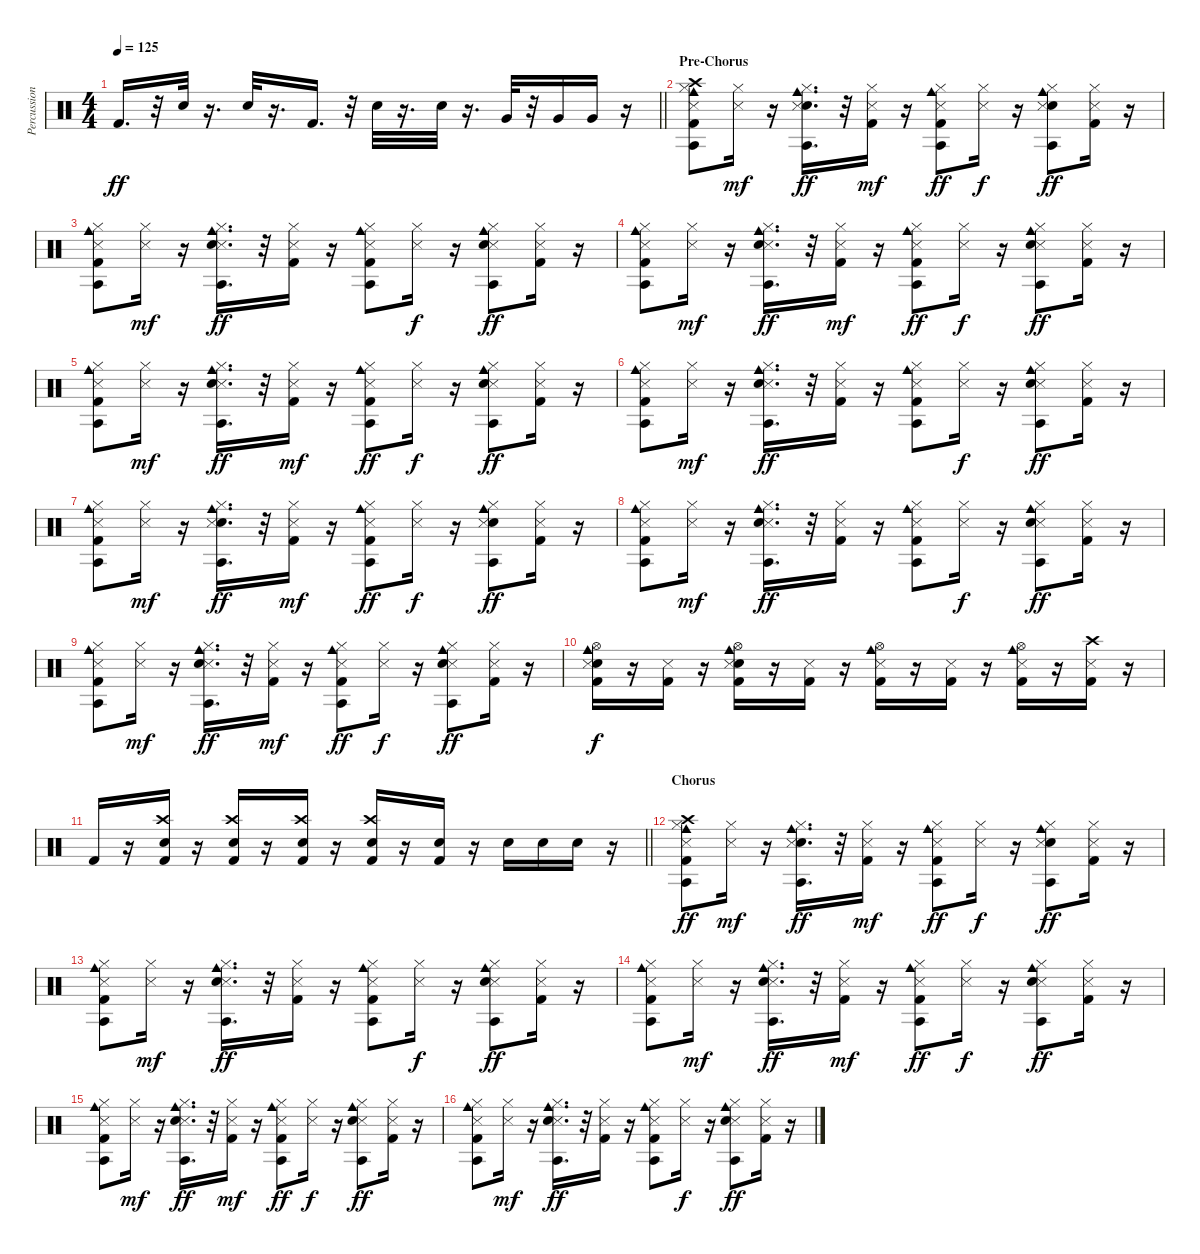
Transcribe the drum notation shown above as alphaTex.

\track ("Percussion" "Percussion") {instrument percussion}
\staff {score}
\articulation defaults
\ts (4 4)
\tempo 125
\clef neutral
\barLineRight lightlight
\ks c "Kick (hit) 2".16{d dy ff}
r.32 "Electric Snare (hit)".32 r.16{d} "Electric Snare (hit)".32 r.16{d} "Kick (hit) 2".16{d} r.32 "Electric Snare (hit)".32 r.16{d} "Electric Snare (hit)".32 r.16{d} "Very Low Tom (hit)".32 r.32 "Very Low Tom (hit)".16 "Very Low Tom (hit)".16 r.16 |
\section ("" "Pre-Chorus")
("Kick (hit) 2" "Hi-Hat (closed)" "Agogo tow (hit)" "Crash high (hit)" "Cowbell medium (hit)" "Snare (side stick) 3").8 ("Hi-Hat (closed)" "Snare (side stick) 3").16{dy mf} r.16 ("Snare (hit) 2" "Hi-Hat (closed)" "Agogo tow (hit)" "Cowbell medium (hit)" "Snare (side stick) 3").16{d dy ff} r.32 ("Kick (hit) 2" "Hi-Hat (closed)" "Snare (side stick) 3").16{dy mf} r.16 ("Kick (hit) 2" "Hi-Hat (closed)" "Agogo tow (hit)" "Cowbell medium (hit)" "Snare (side stick) 3").8{dy ff} ("Hi-Hat (closed)" "Snare (side stick) 3").16{dy f} r.16 ("Snare (hit) 2" "Hi-Hat (closed)" "Agogo tow (hit)" "Cowbell medium (hit)" "Snare (side stick) 3").8{dy ff} ("Kick (hit) 2" "Hi-Hat (closed)" "Snare (side stick) 3").16 r.16 |
("Cowbell medium (hit)" "Snare (side stick) 3" "Hi-Hat (closed)" "Agogo tow (hit)" "Kick (hit) 2").8 ("Snare (side stick) 3" "Hi-Hat (closed)").16{dy mf} r.16 ("Cowbell medium (hit)" "Snare (side stick) 3" "Hi-Hat (closed)" "Agogo tow (hit)" "Snare (hit) 2").16{d dy ff} r.32 ("Snare (side stick) 3" "Hi-Hat (closed)" "Kick (hit) 2").16 r.16 ("Cowbell medium (hit)" "Snare (side stick) 3" "Hi-Hat (closed)" "Agogo tow (hit)" "Kick (hit) 2").8 ("Snare (side stick) 3" "Hi-Hat (closed)").16{dy f} r.16 ("Cowbell medium (hit)" "Snare (side stick) 3" "Hi-Hat (closed)" "Agogo tow (hit)" "Snare (hit) 2").8{dy ff} ("Snare (side stick) 3" "Hi-Hat (closed)" "Kick (hit) 2").16 r.16 |
("Snare (side stick) 3" "Agogo tow (hit)" "Kick (hit) 2" "Cowbell medium (hit)" "Hi-Hat (closed)").8 ("Snare (side stick) 3" "Hi-Hat (closed)").16{dy mf} r.16 ("Snare (side stick) 3" "Agogo tow (hit)" "Snare (hit) 2" "Cowbell medium (hit)" "Hi-Hat (closed)").16{d dy ff} r.32 ("Snare (side stick) 3" "Kick (hit) 2" "Hi-Hat (closed)").16{dy mf} r.16 ("Snare (side stick) 3" "Agogo tow (hit)" "Kick (hit) 2" "Cowbell medium (hit)" "Hi-Hat (closed)").8{dy ff} ("Snare (side stick) 3" "Hi-Hat (closed)").16{dy f} r.16 ("Snare (side stick) 3" "Agogo tow (hit)" "Snare (hit) 2" "Cowbell medium (hit)" "Hi-Hat (closed)").8{dy ff} ("Snare (side stick) 3" "Kick (hit) 2" "Hi-Hat (closed)").16 r.16 |
("Cowbell medium (hit)" "Agogo tow (hit)" "Snare (side stick) 3" "Kick (hit) 2" "Hi-Hat (closed)").8 ("Snare (side stick) 3" "Hi-Hat (closed)").16{dy mf} r.16 ("Cowbell medium (hit)" "Agogo tow (hit)" "Snare (side stick) 3" "Snare (hit) 2" "Hi-Hat (closed)").16{d dy ff} r.32 ("Snare (side stick) 3" "Kick (hit) 2" "Hi-Hat (closed)").16{dy mf} r.16 ("Cowbell medium (hit)" "Agogo tow (hit)" "Snare (side stick) 3" "Kick (hit) 2" "Hi-Hat (closed)").8{dy ff} ("Snare (side stick) 3" "Hi-Hat (closed)").16{dy f} r.16 ("Cowbell medium (hit)" "Agogo tow (hit)" "Snare (side stick) 3" "Snare (hit) 2" "Hi-Hat (closed)").8{dy ff} ("Snare (side stick) 3" "Kick (hit) 2" "Hi-Hat (closed)").16 r.16 |
("Hi-Hat (closed)" "Cowbell medium (hit)" "Snare (side stick) 3" "Agogo tow (hit)" "Kick (hit) 2").8 ("Hi-Hat (closed)" "Snare (side stick) 3").16{dy mf} r.16 ("Hi-Hat (closed)" "Cowbell medium (hit)" "Snare (side stick) 3" "Agogo tow (hit)" "Snare (hit) 2").16{d dy ff} r.32 ("Hi-Hat (closed)" "Snare (side stick) 3" "Kick (hit) 2").16 r.16 ("Hi-Hat (closed)" "Cowbell medium (hit)" "Snare (side stick) 3" "Agogo tow (hit)" "Kick (hit) 2").8 ("Hi-Hat (closed)" "Snare (side stick) 3").16{dy f} r.16 ("Hi-Hat (closed)" "Cowbell medium (hit)" "Snare (side stick) 3" "Agogo tow (hit)" "Snare (hit) 2").8{dy ff} ("Hi-Hat (closed)" "Snare (side stick) 3" "Kick (hit) 2").16 r.16 |
("Kick (hit) 2" "Agogo tow (hit)" "Cowbell medium (hit)" "Snare (side stick) 3" "Hi-Hat (closed)").8 ("Snare (side stick) 3" "Hi-Hat (closed)").16{dy mf} r.16 ("Snare (hit) 2" "Agogo tow (hit)" "Cowbell medium (hit)" "Snare (side stick) 3" "Hi-Hat (closed)").16{d dy ff} r.32 ("Kick (hit) 2" "Snare (side stick) 3" "Hi-Hat (closed)").16{dy mf} r.16 ("Kick (hit) 2" "Agogo tow (hit)" "Cowbell medium (hit)" "Snare (side stick) 3" "Hi-Hat (closed)").8{dy ff} ("Snare (side stick) 3" "Hi-Hat (closed)").16{dy f} r.16 ("Snare (hit) 2" "Agogo tow (hit)" "Cowbell medium (hit)" "Snare (side stick) 3" "Hi-Hat (closed)").8{dy ff} ("Kick (hit) 2" "Snare (side stick) 3" "Hi-Hat (closed)").16 r.16 |
("Agogo tow (hit)" "Snare (side stick) 3" "Cowbell medium (hit)" "Hi-Hat (closed)" "Kick (hit) 2").8 ("Snare (side stick) 3" "Hi-Hat (closed)").16{dy mf} r.16 ("Agogo tow (hit)" "Snare (side stick) 3" "Cowbell medium (hit)" "Hi-Hat (closed)" "Snare (hit) 2").16{d dy ff} r.32 ("Snare (side stick) 3" "Hi-Hat (closed)" "Kick (hit) 2").16 r.16 ("Agogo tow (hit)" "Snare (side stick) 3" "Cowbell medium (hit)" "Hi-Hat (closed)" "Kick (hit) 2").8 ("Snare (side stick) 3" "Hi-Hat (closed)").16{dy f} r.16 ("Agogo tow (hit)" "Snare (side stick) 3" "Cowbell medium (hit)" "Hi-Hat (closed)" "Snare (hit) 2").8{dy ff} ("Snare (side stick) 3" "Hi-Hat (closed)" "Kick (hit) 2").16 r.16 |
("Cowbell medium (hit)" "Snare (side stick) 3" "Agogo tow (hit)" "Kick (hit) 2" "Hi-Hat (closed)").8 ("Snare (side stick) 3" "Hi-Hat (closed)").16{dy mf} r.16 ("Cowbell medium (hit)" "Snare (side stick) 3" "Agogo tow (hit)" "Snare (hit) 2" "Hi-Hat (closed)").16{d dy ff} r.32 ("Snare (side stick) 3" "Kick (hit) 2" "Hi-Hat (closed)").16{dy mf} r.16 ("Cowbell medium (hit)" "Snare (side stick) 3" "Agogo tow (hit)" "Kick (hit) 2" "Hi-Hat (closed)").8{dy ff} ("Snare (side stick) 3" "Hi-Hat (closed)").16{dy f} r.16 ("Cowbell medium (hit)" "Snare (side stick) 3" "Agogo tow (hit)" "Snare (hit) 2" "Hi-Hat (closed)").8{dy ff} ("Snare (side stick) 3" "Kick (hit) 2" "Hi-Hat (closed)").16 r.16 |
("Electric Snare (hit)" "Snare (side stick) 3" "Cowbell medium (hit)" "Hi-Hat (open)" "Kick (hit) 2").16{dy f} r.16 ("Snare (side stick) 3" "Kick (hit) 2").16 r.16 ("Electric Snare (hit)" "Snare (side stick) 3" "Cowbell medium (hit)" "Hi-Hat (open)" "Kick (hit) 2").16 r.16 ("Snare (side stick) 3" "Kick (hit) 2").16 r.16 ("Snare (side stick) 3" "Cowbell medium (hit)" "Hi-Hat (open)" "Kick (hit) 2").16 r.16 ("Snare (side stick) 3" "Kick (hit) 2").16 r.16 ("Snare (side stick) 3" "Cowbell medium (hit)" "Hi-Hat (open)" "Kick (hit) 2").16 r.16 ("Crash high (hit)" "Snare (side stick) 3" "Kick (hit) 2").16 r.16 |
\barLineRight lightlight "Kick (hit) 2".16
r.16 ("Crash high (hit)" "Snare (hit) 2" "Kick (hit) 2").16 r.16 ("Snare (hit) 2" "Crash high (hit)" "Kick (hit) 2").16 r.16 ("Snare (hit) 2" "Kick (hit) 2" "Crash high (hit)").16 r.16 ("Snare (hit) 2" "Crash high (hit)" "Kick (hit) 2").16 r.16 ("Snare (hit) 2" "Kick (hit) 2").16 r.16 "Snare (hit) 2".16 "Snare (hit) 2".16 "Snare (hit) 2".16 r.16 |
\section ("" "Chorus")
("Kick (hit) 2" "Hi-Hat (closed)" "Agogo tow (hit)" "Crash high (hit)" "Cowbell medium (hit)" "Snare (side stick) 3").8{dy ff} ("Hi-Hat (closed)" "Snare (side stick) 3").16{dy mf} r.16 ("Snare (hit) 2" "Hi-Hat (closed)" "Agogo tow (hit)" "Cowbell medium (hit)" "Snare (side stick) 3").16{d dy ff} r.32 ("Kick (hit) 2" "Hi-Hat (closed)" "Snare (side stick) 3").16{dy mf} r.16 ("Kick (hit) 2" "Hi-Hat (closed)" "Agogo tow (hit)" "Cowbell medium (hit)" "Snare (side stick) 3").8{dy ff} ("Hi-Hat (closed)" "Snare (side stick) 3").16{dy f} r.16 ("Snare (hit) 2" "Hi-Hat (closed)" "Agogo tow (hit)" "Cowbell medium (hit)" "Snare (side stick) 3").8{dy ff} ("Kick (hit) 2" "Hi-Hat (closed)" "Snare (side stick) 3").16 r.16 |
("Cowbell medium (hit)" "Snare (side stick) 3" "Hi-Hat (closed)" "Agogo tow (hit)" "Kick (hit) 2").8 ("Snare (side stick) 3" "Hi-Hat (closed)").16{dy mf} r.16 ("Cowbell medium (hit)" "Snare (side stick) 3" "Hi-Hat (closed)" "Agogo tow (hit)" "Snare (hit) 2").16{d dy ff} r.32 ("Snare (side stick) 3" "Hi-Hat (closed)" "Kick (hit) 2").16 r.16 ("Cowbell medium (hit)" "Snare (side stick) 3" "Hi-Hat (closed)" "Agogo tow (hit)" "Kick (hit) 2").8 ("Snare (side stick) 3" "Hi-Hat (closed)").16{dy f} r.16 ("Cowbell medium (hit)" "Snare (side stick) 3" "Hi-Hat (closed)" "Agogo tow (hit)" "Snare (hit) 2").8{dy ff} ("Snare (side stick) 3" "Hi-Hat (closed)" "Kick (hit) 2").16 r.16 |
("Snare (side stick) 3" "Agogo tow (hit)" "Kick (hit) 2" "Cowbell medium (hit)" "Hi-Hat (closed)").8 ("Snare (side stick) 3" "Hi-Hat (closed)").16{dy mf} r.16 ("Snare (side stick) 3" "Agogo tow (hit)" "Snare (hit) 2" "Cowbell medium (hit)" "Hi-Hat (closed)").16{d dy ff} r.32 ("Snare (side stick) 3" "Kick (hit) 2" "Hi-Hat (closed)").16{dy mf} r.16 ("Snare (side stick) 3" "Agogo tow (hit)" "Kick (hit) 2" "Cowbell medium (hit)" "Hi-Hat (closed)").8{dy ff} ("Snare (side stick) 3" "Hi-Hat (closed)").16{dy f} r.16 ("Snare (side stick) 3" "Agogo tow (hit)" "Snare (hit) 2" "Cowbell medium (hit)" "Hi-Hat (closed)").8{dy ff} ("Snare (side stick) 3" "Kick (hit) 2" "Hi-Hat (closed)").16 r.16 |
("Cowbell medium (hit)" "Agogo tow (hit)" "Snare (side stick) 3" "Kick (hit) 2" "Hi-Hat (closed)").8 ("Snare (side stick) 3" "Hi-Hat (closed)").16{dy mf} r.16 ("Cowbell medium (hit)" "Agogo tow (hit)" "Snare (side stick) 3" "Snare (hit) 2" "Hi-Hat (closed)").16{d dy ff} r.32 ("Snare (side stick) 3" "Kick (hit) 2" "Hi-Hat (closed)").16{dy mf} r.16 ("Cowbell medium (hit)" "Agogo tow (hit)" "Snare (side stick) 3" "Kick (hit) 2" "Hi-Hat (closed)").8{dy ff} ("Snare (side stick) 3" "Hi-Hat (closed)").16{dy f} r.16 ("Cowbell medium (hit)" "Agogo tow (hit)" "Snare (side stick) 3" "Snare (hit) 2" "Hi-Hat (closed)").8{dy ff} ("Snare (side stick) 3" "Kick (hit) 2" "Hi-Hat (closed)").16 r.16 |
("Hi-Hat (closed)" "Cowbell medium (hit)" "Snare (side stick) 3" "Agogo tow (hit)" "Kick (hit) 2").8 ("Hi-Hat (closed)" "Snare (side stick) 3").16{dy mf} r.16 ("Hi-Hat (closed)" "Cowbell medium (hit)" "Snare (side stick) 3" "Agogo tow (hit)" "Snare (hit) 2").16{d dy ff} r.32 ("Hi-Hat (closed)" "Snare (side stick) 3" "Kick (hit) 2").16 r.16 ("Hi-Hat (closed)" "Cowbell medium (hit)" "Snare (side stick) 3" "Agogo tow (hit)" "Kick (hit) 2").8 ("Hi-Hat (closed)" "Snare (side stick) 3").16{dy f} r.16 ("Hi-Hat (closed)" "Cowbell medium (hit)" "Snare (side stick) 3" "Agogo tow (hit)" "Snare (hit) 2").8{dy ff} ("Hi-Hat (closed)" "Snare (side stick) 3" "Kick (hit) 2").16 r.16
